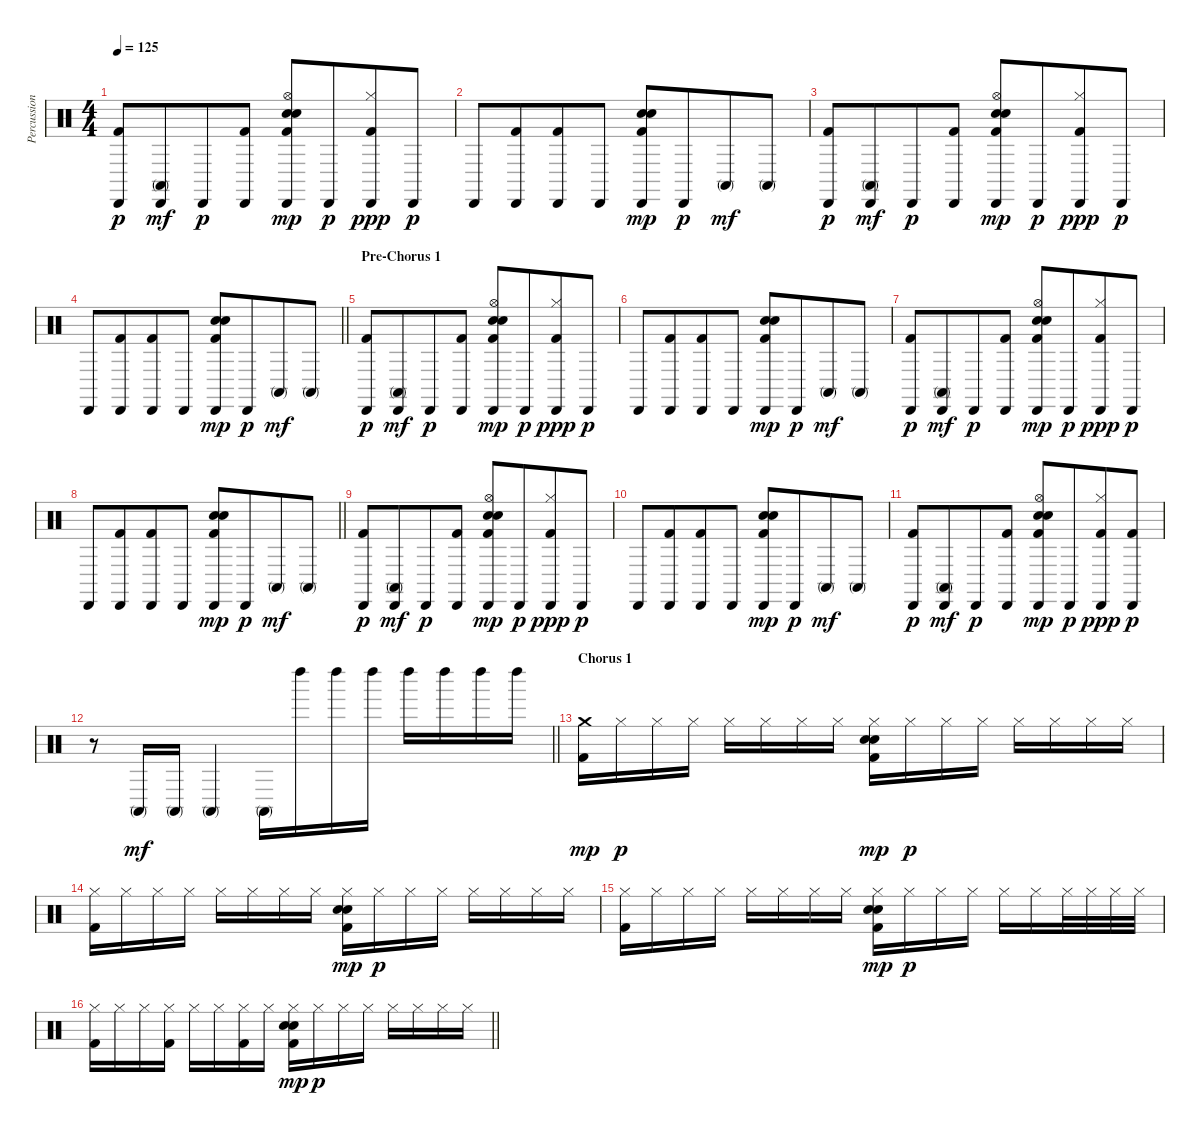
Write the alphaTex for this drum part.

\track ("Percussion" "Percussion") {instrument percussion}
\staff {score}
\articulation defaults
\ts (4 4)
\tempo 125
\clef neutral
\ks c
("Cabasa (hit)" "Kick (hit) 2").8{dy p} ("Cabasa (hit)" "Conga high (mute)").8{dy mf beam merge} "Cabasa (hit)".8{dy p} ("Cabasa (hit)" "Kick (hit) 2").8 ("Cabasa (hit)" "Hi-Hat (open)" "Hand Clap (hit)" "Electric Snare (hit)" "Kick (hit) 2").8{dy mp} "Cabasa (hit)".8{dy p beam merge} ("Cabasa (hit)" "Hi-Hat (closed)" "Kick (hit) 2").8{dy ppp} "Cabasa (hit)".8{dy p} |
"Cabasa (hit)".8 ("Cabasa (hit)" "Kick (hit) 2").8{beam merge} ("Cabasa (hit)" "Kick (hit) 2").8 "Cabasa (hit)".8 ("Cabasa (hit)" "Hand Clap (hit)" "Electric Snare (hit)" "Kick (hit) 2").8{dy mp} "Cabasa (hit)".8{dy p beam merge} "Conga high (mute)".8{dy mf} "Conga high (mute)".8 |
("Cabasa (hit)" "Kick (hit) 2").8{dy p} ("Cabasa (hit)" "Conga high (mute)").8{dy mf beam merge} "Cabasa (hit)".8{dy p} ("Cabasa (hit)" "Kick (hit) 2").8 ("Cabasa (hit)" "Hi-Hat (open)" "Hand Clap (hit)" "Electric Snare (hit)" "Kick (hit) 2").8{dy mp} "Cabasa (hit)".8{dy p beam merge} ("Cabasa (hit)" "Hi-Hat (closed)" "Kick (hit) 2").8{dy ppp} "Cabasa (hit)".8{dy p} |
\barLineRight lightlight "Cabasa (hit)".8
("Cabasa (hit)" "Kick (hit) 2").8{beam merge} ("Cabasa (hit)" "Kick (hit) 2").8 "Cabasa (hit)".8 ("Cabasa (hit)" "Hand Clap (hit)" "Electric Snare (hit)" "Kick (hit) 2").8{dy mp} "Cabasa (hit)".8{dy p beam merge} "Conga high (mute)".8{dy mf} "Conga high (mute)".8 |
\section ("" "Pre-Chorus 1")
("Cabasa (hit)" "Kick (hit) 2").8{dy p} ("Cabasa (hit)" "Conga high (mute)").8{dy mf beam merge} "Cabasa (hit)".8{dy p} ("Cabasa (hit)" "Kick (hit) 2").8 ("Cabasa (hit)" "Hi-Hat (open)" "Hand Clap (hit)" "Electric Snare (hit)" "Kick (hit) 2").8{dy mp} "Cabasa (hit)".8{dy p beam merge} ("Cabasa (hit)" "Hi-Hat (closed)" "Kick (hit) 2").8{dy ppp} "Cabasa (hit)".8{dy p} |
"Cabasa (hit)".8 ("Cabasa (hit)" "Kick (hit) 2").8{beam merge} ("Cabasa (hit)" "Kick (hit) 2").8 "Cabasa (hit)".8 ("Cabasa (hit)" "Hand Clap (hit)" "Electric Snare (hit)" "Kick (hit) 2").8{dy mp} "Cabasa (hit)".8{dy p beam merge} "Conga high (mute)".8{dy mf} "Conga high (mute)".8 |
("Cabasa (hit)" "Kick (hit) 2").8{dy p} ("Cabasa (hit)" "Conga high (mute)").8{dy mf beam merge} "Cabasa (hit)".8{dy p} ("Cabasa (hit)" "Kick (hit) 2").8 ("Cabasa (hit)" "Hi-Hat (open)" "Hand Clap (hit)" "Electric Snare (hit)" "Kick (hit) 2").8{dy mp} "Cabasa (hit)".8{dy p beam merge} ("Cabasa (hit)" "Hi-Hat (closed)" "Kick (hit) 2").8{dy ppp} "Cabasa (hit)".8{dy p} |
\barLineRight lightlight "Cabasa (hit)".8
("Cabasa (hit)" "Kick (hit) 2").8{beam merge} ("Cabasa (hit)" "Kick (hit) 2").8 "Cabasa (hit)".8 ("Cabasa (hit)" "Hand Clap (hit)" "Electric Snare (hit)" "Kick (hit) 2").8{dy mp} "Cabasa (hit)".8{dy p beam merge} "Conga high (mute)".8{dy mf} "Conga high (mute)".8 |
("Cabasa (hit)" "Kick (hit) 2").8{dy p} ("Cabasa (hit)" "Conga high (mute)").8{dy mf beam merge} "Cabasa (hit)".8{dy p} ("Cabasa (hit)" "Kick (hit) 2").8 ("Cabasa (hit)" "Hi-Hat (open)" "Hand Clap (hit)" "Electric Snare (hit)" "Kick (hit) 2").8{dy mp} "Cabasa (hit)".8{dy p beam merge} ("Cabasa (hit)" "Hi-Hat (closed)" "Kick (hit) 2").8{dy ppp} "Cabasa (hit)".8{dy p} |
"Cabasa (hit)".8 ("Cabasa (hit)" "Kick (hit) 2").8{beam merge} ("Cabasa (hit)" "Kick (hit) 2").8 "Cabasa (hit)".8 ("Cabasa (hit)" "Hand Clap (hit)" "Electric Snare (hit)" "Kick (hit) 2").8{dy mp} "Cabasa (hit)".8{dy p beam merge} "Conga high (mute)".8{dy mf} "Conga high (mute)".8 |
("Cabasa (hit)" "Kick (hit) 2").8{dy p} ("Cabasa (hit)" "Conga high (mute)").8{dy mf beam merge} "Cabasa (hit)".8{dy p} ("Cabasa (hit)" "Kick (hit) 2").8 ("Cabasa (hit)" "Hi-Hat (open)" "Hand Clap (hit)" "Electric Snare (hit)" "Kick (hit) 2").8{dy mp} "Cabasa (hit)".8{dy p beam merge} ("Cabasa (hit)" "Hi-Hat (closed)" "Kick (hit) 2").8{dy ppp} ("Cabasa (hit)" "Kick (hit) 2").8{dy p} |
\barLineRight lightlight
r.8 "Conga high (mute)".16{dy mf} "Conga high (mute)".16 "Conga high (mute)".4 "Conga high (mute)".16 "Left Maraca (hit)".16 "Left Maraca (hit)".16 "Left Maraca (hit)".16 "Left Maraca (hit)".16 "Left Maraca (hit)".16 "Left Maraca (hit)".16 "Left Maraca (hit)".16 |
\section ("" "Chorus 1")
("Crash medium (hit)" "Kick (hit) 2").16{dy mp} "Hi-Hat (closed)".16{dy p} "Hi-Hat (closed)".16 "Hi-Hat (closed)".16 "Hi-Hat (closed)".16 "Hi-Hat (closed)".16 "Hi-Hat (closed)".16 "Hi-Hat (closed)".16 ("Hi-Hat (closed)" "Hand Clap (hit)" "Electric Snare (hit)" "Kick (hit) 2").16{dy mp} "Hi-Hat (closed)".16{dy p} "Hi-Hat (closed)".16 "Hi-Hat (closed)".16 "Hi-Hat (closed)".16 "Hi-Hat (closed)".16 "Hi-Hat (closed)".16 "Hi-Hat (closed)".16 |
("Hi-Hat (closed)" "Kick (hit) 2").16 "Hi-Hat (closed)".16 "Hi-Hat (closed)".16 "Hi-Hat (closed)".16 "Hi-Hat (closed)".16 "Hi-Hat (closed)".16 "Hi-Hat (closed)".16 "Hi-Hat (closed)".16 ("Hi-Hat (closed)" "Hand Clap (hit)" "Electric Snare (hit)" "Kick (hit) 2").16{dy mp} "Hi-Hat (closed)".16{dy p} "Hi-Hat (closed)".16 "Hi-Hat (closed)".16 "Hi-Hat (closed)".16 "Hi-Hat (closed)".16 "Hi-Hat (closed)".16 "Hi-Hat (closed)".16 |
("Hi-Hat (closed)" "Kick (hit) 2").16 "Hi-Hat (closed)".16 "Hi-Hat (closed)".16 "Hi-Hat (closed)".16 "Hi-Hat (closed)".16 "Hi-Hat (closed)".16 "Hi-Hat (closed)".16 "Hi-Hat (closed)".16 ("Hi-Hat (closed)" "Hand Clap (hit)" "Electric Snare (hit)" "Kick (hit) 2").16{dy mp} "Hi-Hat (closed)".16{dy p} "Hi-Hat (closed)".16 "Hi-Hat (closed)".16 "Hi-Hat (closed)".16 "Hi-Hat (closed)".16 "Hi-Hat (closed)".32 "Hi-Hat (closed)".32 "Hi-Hat (closed)".32 "Hi-Hat (closed)".32 |
\barLineRight lightlight
("Hi-Hat (closed)" "Kick (hit) 2").16 "Hi-Hat (closed)".16 "Hi-Hat (closed)".16 ("Hi-Hat (closed)" "Kick (hit) 2").16 "Hi-Hat (closed)".16 "Hi-Hat (closed)".16 ("Hi-Hat (closed)" "Kick (hit) 2").16 "Hi-Hat (closed)".16 ("Hi-Hat (closed)" "Hand Clap (hit)" "Electric Snare (hit)" "Kick (hit) 2").16{dy mp} "Hi-Hat (closed)".16{dy p} "Hi-Hat (closed)".16 "Hi-Hat (closed)".16 "Hi-Hat (closed)".16 "Hi-Hat (closed)".16 "Hi-Hat (closed)".16 "Hi-Hat (closed)".16
